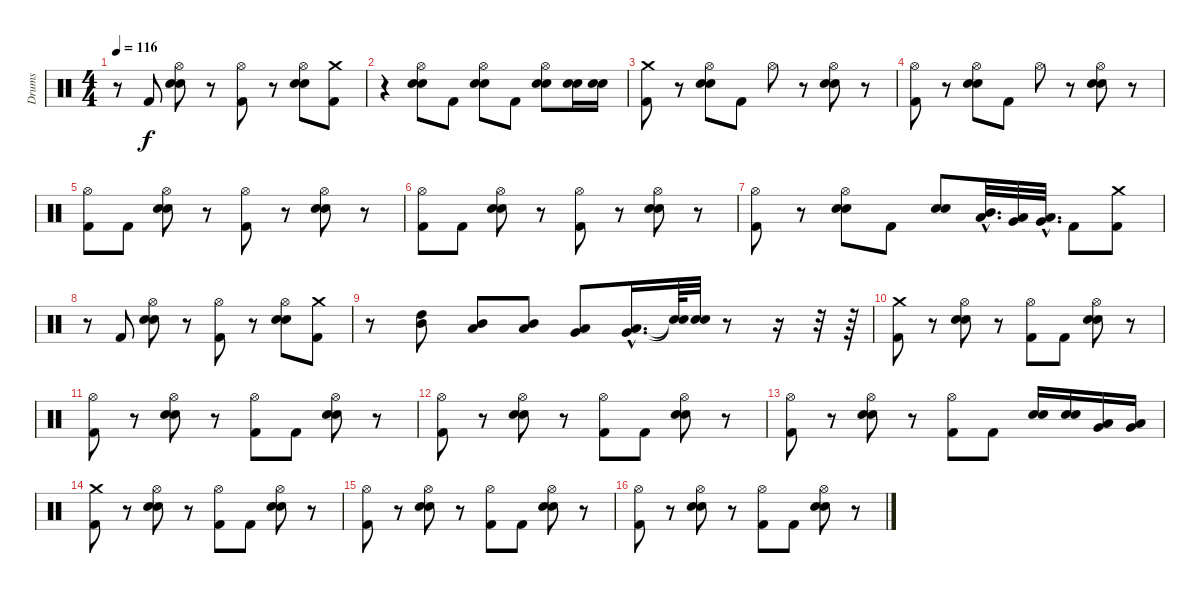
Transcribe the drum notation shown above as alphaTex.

\track ("Drums" "Drums") {instrument percussion}
\staff {score}
\articulation defaults
\ts (4 4)
\tempo 116
\clef neutral
\ks c
r.8{dy f} "Kick (hit) 2".8 ("Hi-Hat (open)" "Snare (hit) 2" "Electric Snare (hit)").8 r.8 ("Kick (hit) 2" "Hi-Hat (open)").8 r.8 ("Hi-Hat (open)" "Snare (hit) 2" "Electric Snare (hit)").8 ("Crash medium (hit)" "Kick (hit) 2").8 |
r.4 ("Hi-Hat (open)" "Snare (hit) 2" "Electric Snare (hit)").8 "Kick (hit) 2".8 ("Hi-Hat (open)" "Electric Snare (hit)" "Snare (hit) 2").8 "Kick (hit) 2".8 ("Hi-Hat (open)" "Electric Snare (hit)" "Snare (hit) 2").8 ("Snare (hit) 2" "Electric Snare (hit)").16 ("Snare (hit) 2" "Electric Snare (hit)").16 |
("Crash medium (hit)" "Kick (hit) 2").8 r.8 ("Hi-Hat (open)" "Snare (hit) 2" "Electric Snare (hit)").8 "Kick (hit) 2".8 "Hi-Hat (open)".8 r.8 ("Hi-Hat (open)" "Snare (hit) 2" "Electric Snare (hit)").8 r.8 |
("Hi-Hat (open)" "Kick (hit) 2").8 r.8 ("Hi-Hat (open)" "Snare (hit) 2" "Electric Snare (hit)").8 "Kick (hit) 2".8 "Hi-Hat (open)".8 r.8 ("Hi-Hat (open)" "Snare (hit) 2" "Electric Snare (hit)").8 r.8 |
("Hi-Hat (open)" "Kick (hit) 2").8 "Kick (hit) 2".8 ("Hi-Hat (open)" "Snare (hit) 2" "Electric Snare (hit)").8 r.8 ("Kick (hit) 2" "Hi-Hat (open)").8 r.8 ("Hi-Hat (open)" "Snare (hit) 2" "Electric Snare (hit)").8 r.8 |
("Hi-Hat (open)" "Kick (hit) 2").8 "Kick (hit) 2".8 ("Hi-Hat (open)" "Snare (hit) 2" "Electric Snare (hit)").8 r.8 ("Kick (hit) 2" "Hi-Hat (open)").8 r.8 ("Hi-Hat (open)" "Snare (hit) 2" "Electric Snare (hit)").8 r.8 |
("Hi-Hat (open)" "Kick (hit) 2").8 r.8 ("Hi-Hat (open)" "Snare (hit) 2" "Electric Snare (hit)").8 "Kick (hit) 2".8 ("Electric Snare (hit)" "Snare (hit) 2").8 ("Mid Tom (hit)"{hac} "Low Tom (hit)"{hac}).32{d} ("Low Tom (hit)" "Very Low Tom (hit)").32 ("Low Tom (hit)"{hac} "Very Low Tom (hit)"{hac}).32{d} "Kick (hit) 2".8 ("Crash medium (hit)" "Kick (hit) 2").8 |
r.8 "Kick (hit) 2".8 ("Hi-Hat (open)" "Snare (hit) 2" "Electric Snare (hit)").8 r.8 ("Kick (hit) 2" "Hi-Hat (open)").8 r.8 ("Hi-Hat (open)" "Snare (hit) 2" "Electric Snare (hit)").8 ("Crash medium (hit)" "Kick (hit) 2").8 |
r.8 ("High Tom (hit)" "Mid Tom (hit)").8 ("Mid Tom (hit)" "Low Tom (hit)").8 ("Mid Tom (hit)" "Low Tom (hit)").8 ("Low Tom (hit)" "Very Low Tom (hit)").8 ("Low Tom (hit)"{hac} "Very Low Tom (hit)"{hac}).16{d} ("Snare (hit)"{t} "Snare (hit)"{t}).64 ("Snare (hit) 2" "Electric Snare (hit)").32 r.8 r.16 r.32 r.64 |
("Crash medium (hit)" "Kick (hit) 2").8 r.8 ("Hi-Hat (open)" "Snare (hit) 2" "Electric Snare (hit)").8 r.8 ("Kick (hit) 2" "Hi-Hat (open)").8 "Kick (hit) 2".8 ("Hi-Hat (open)" "Snare (hit) 2" "Electric Snare (hit)").8 r.8 |
("Hi-Hat (open)" "Kick (hit) 2").8 r.8 ("Hi-Hat (open)" "Snare (hit) 2" "Electric Snare (hit)").8 r.8 ("Kick (hit) 2" "Hi-Hat (open)").8 "Kick (hit) 2".8 ("Hi-Hat (open)" "Snare (hit) 2" "Electric Snare (hit)").8 r.8 |
("Hi-Hat (open)" "Kick (hit) 2").8 r.8 ("Hi-Hat (open)" "Snare (hit) 2" "Electric Snare (hit)").8 r.8 ("Kick (hit) 2" "Hi-Hat (open)").8 "Kick (hit) 2".8 ("Hi-Hat (open)" "Snare (hit) 2" "Electric Snare (hit)").8 r.8 |
("Hi-Hat (open)" "Kick (hit) 2").8 r.8 ("Hi-Hat (open)" "Snare (hit) 2" "Electric Snare (hit)").8 r.8 ("Kick (hit) 2" "Hi-Hat (open)").8 "Kick (hit) 2".8 ("Electric Snare (hit)" "Snare (hit) 2").16 ("Electric Snare (hit)" "Snare (hit) 2").16 ("Very Low Tom (hit)" "Low Tom (hit)").16 ("Very Low Tom (hit)" "Low Tom (hit)").16 |
("Crash medium (hit)" "Kick (hit) 2").8 r.8 ("Hi-Hat (open)" "Snare (hit) 2" "Electric Snare (hit)").8 r.8 ("Kick (hit) 2" "Hi-Hat (open)").8 "Kick (hit) 2".8 ("Electric Snare (hit)" "Snare (hit) 2" "Hi-Hat (open)").8 r.8 |
("Hi-Hat (open)" "Kick (hit) 2").8 r.8 ("Hi-Hat (open)" "Snare (hit) 2" "Electric Snare (hit)").8 r.8 ("Kick (hit) 2" "Hi-Hat (open)").8 "Kick (hit) 2".8 ("Hi-Hat (open)" "Snare (hit) 2" "Electric Snare (hit)").8 r.8 |
("Hi-Hat (open)" "Kick (hit) 2").8 r.8 ("Hi-Hat (open)" "Snare (hit) 2" "Electric Snare (hit)").8 r.8 ("Kick (hit) 2" "Hi-Hat (open)").8 "Kick (hit) 2".8 ("Hi-Hat (open)" "Snare (hit) 2" "Electric Snare (hit)").8 r.8
